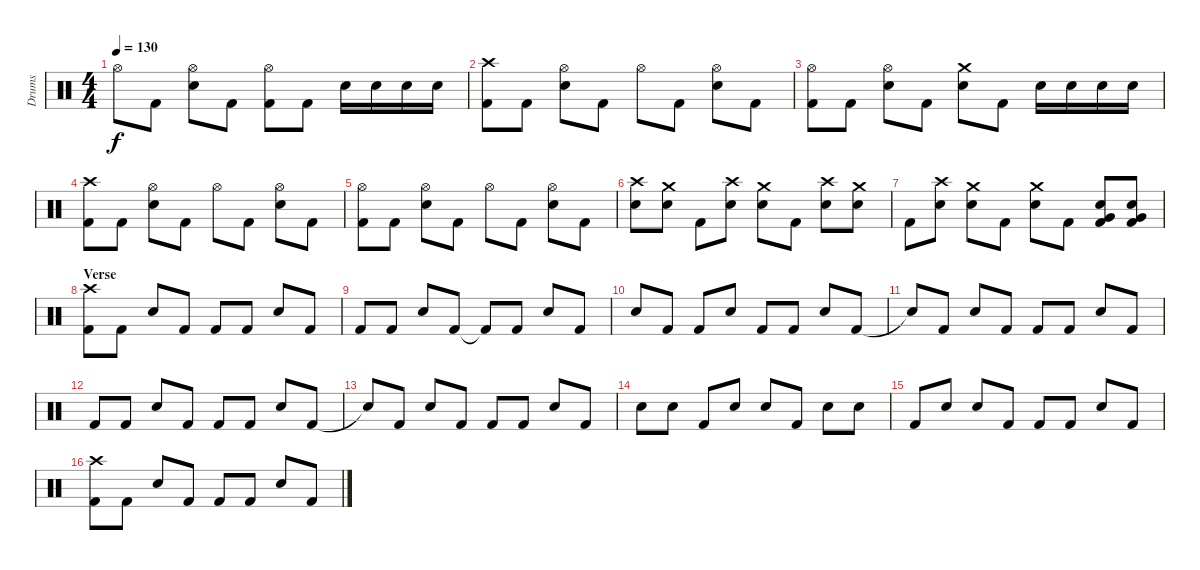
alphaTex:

\track ("Drums" "Drums") {instrument percussion}
\staff {score}
\articulation defaults
\ts (4 4)
\tempo 130
\clef neutral
\ks c "Hi-Hat (open)".8{dy f} "Kick (hit) 2".8
("Hi-Hat (open)" "Electric Snare (hit)").8 "Kick (hit) 2".8 ("Hi-Hat (open)" "Kick (hit) 2").8 "Kick (hit) 2".8 "Electric Snare (hit)".16 "Electric Snare (hit)".16 "Electric Snare (hit)".16 "Electric Snare (hit)".16 |
("Crash high (hit)" "Kick (hit) 2").8 "Kick (hit) 2".8 ("Hi-Hat (open)" "Electric Snare (hit)").8 "Kick (hit) 2".8 "Hi-Hat (open)".8 "Kick (hit) 2".8 ("Hi-Hat (open)" "Electric Snare (hit)").8 "Kick (hit) 2".8 |
("Hi-Hat (open)" "Kick (hit) 2").8 "Kick (hit) 2".8 ("Hi-Hat (open)" "Electric Snare (hit)").8 "Kick (hit) 2".8 ("Crash medium (hit)" "Electric Snare (hit)").8 "Kick (hit) 2".8 "Electric Snare (hit)".16 "Electric Snare (hit)".16 "Electric Snare (hit)".16 "Electric Snare (hit)".16 |
("Crash high (hit)" "Kick (hit) 2").8 "Kick (hit) 2".8 ("Hi-Hat (open)" "Electric Snare (hit)").8 "Kick (hit) 2".8 "Hi-Hat (open)".8 "Kick (hit) 2".8 ("Hi-Hat (open)" "Electric Snare (hit)").8 "Kick (hit) 2".8 |
("Hi-Hat (open)" "Kick (hit) 2").8 "Kick (hit) 2".8 ("Hi-Hat (open)" "Electric Snare (hit)").8 "Kick (hit) 2".8 "Hi-Hat (open)".8 "Kick (hit) 2".8 ("Hi-Hat (open)" "Electric Snare (hit)").8 "Kick (hit) 2".8 |
("Crash high (hit)" "Electric Snare (hit)").8 ("Crash medium (hit)" "Electric Snare (hit)").8 "Kick (hit) 2".8 ("Crash high (hit)" "Electric Snare (hit)").8 ("Crash medium (hit)" "Electric Snare (hit)").8 "Kick (hit) 2".8 ("Crash high (hit)" "Electric Snare (hit)").8 ("Crash medium (hit)" "Electric Snare (hit)").8 |
"Kick (hit) 2".8 ("Crash high (hit)" "Electric Snare (hit)").8 ("Crash medium (hit)" "Electric Snare (hit)").8 "Kick (hit) 2".8 ("Crash medium (hit)" "Electric Snare (hit)").8 "Kick (hit) 2".8 ("Very Low Tom (hit)" "Electric Snare (hit)" "Kick (hit) 2").8 ("Very Low Tom (hit)" "Electric Snare (hit)" "Kick (hit) 2").8 |
\section ("" "Verse")
("Crash high (hit)" "Kick (hit) 2").8 "Kick (hit) 2".8 "Electric Snare (hit)".8 "Kick (hit) 2".8 "Kick (hit) 2".8 "Kick (hit) 2".8 "Electric Snare (hit)".8 "Kick (hit) 2".8 |
"Kick (hit) 2".8 "Kick (hit) 2".8 "Electric Snare (hit)".8 "Kick (hit) 2".8 "Kick (hit) 2"{t}.8 "Kick (hit) 2".8 "Electric Snare (hit)".8 "Kick (hit) 2".8 |
"Electric Snare (hit)".8 "Kick (hit) 2".8 "Kick (hit) 2".8 "Electric Snare (hit)".8 "Kick (hit) 2".8 "Kick (hit) 2".8 "Electric Snare (hit)".8 "Kick (hit) 2".8 |
"Snare (hit)"{t}.8 "Kick (hit) 2".8 "Electric Snare (hit)".8 "Kick (hit) 2".8 "Kick (hit) 2".8 "Kick (hit) 2".8 "Electric Snare (hit)".8 "Kick (hit) 2".8 |
"Kick (hit) 2".8 "Kick (hit) 2".8 "Electric Snare (hit)".8 "Kick (hit) 2".8 "Kick (hit) 2".8 "Kick (hit) 2".8 "Electric Snare (hit)".8 "Kick (hit) 2".8 |
"Snare (hit)"{t}.8 "Kick (hit) 2".8 "Electric Snare (hit)".8 "Kick (hit) 2".8 "Kick (hit) 2".8 "Kick (hit) 2".8 "Electric Snare (hit)".8 "Kick (hit) 2".8 |
"Electric Snare (hit)".8 "Electric Snare (hit)".8 "Kick (hit) 2".8 "Electric Snare (hit)".8 "Electric Snare (hit)".8 "Kick (hit) 2".8 "Electric Snare (hit)".8 "Electric Snare (hit)".8 |
"Kick (hit) 2".8 "Electric Snare (hit)".8 "Electric Snare (hit)".8 "Kick (hit) 2".8 "Kick (hit) 2".8 "Kick (hit) 2".8 "Electric Snare (hit)".8 "Kick (hit) 2".8 |
("Crash high (hit)" "Kick (hit) 2").8 "Kick (hit) 2".8 "Electric Snare (hit)".8 "Kick (hit) 2".8 "Kick (hit) 2".8 "Kick (hit) 2".8 "Electric Snare (hit)".8 "Kick (hit) 2".8
